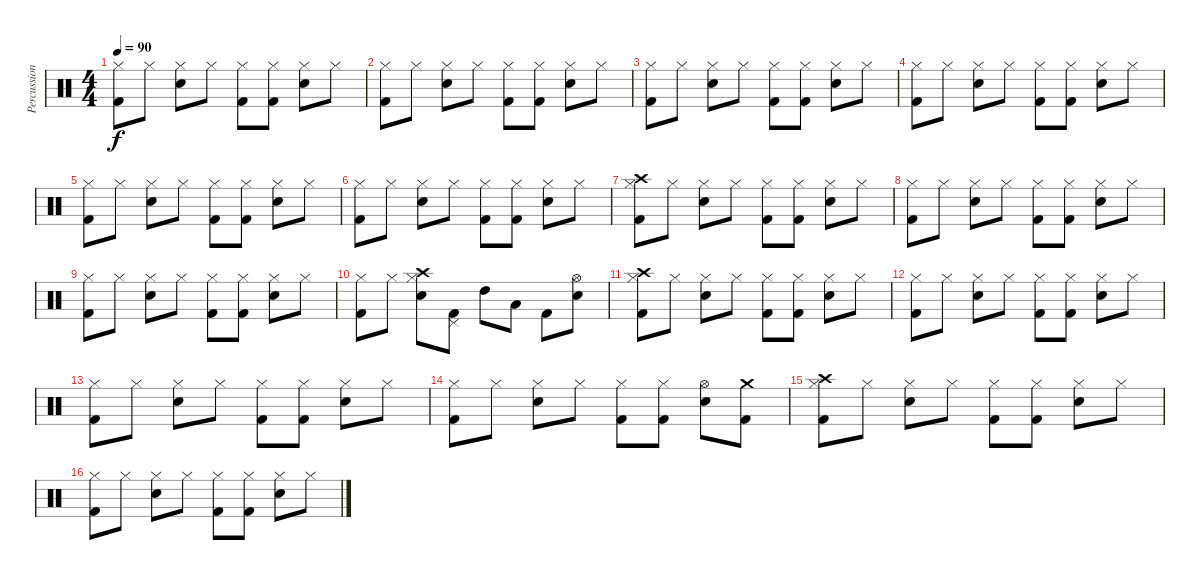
\track ("Percussions" "Percussion") {instrument percussion}
\staff {score}
\articulation defaults
\ts (4 4)
\tempo 90
\clef neutral
\ks c
("Hi-Hat (closed)" "Kick (hit) 2").8{dy f} "Hi-Hat (closed)".8 ("Hi-Hat (closed)" "Snare (hit) 2").8 "Hi-Hat (closed)".8 ("Hi-Hat (closed)" "Kick (hit) 2").8 ("Hi-Hat (closed)" "Kick (hit) 2").8 ("Hi-Hat (closed)" "Snare (hit) 2").8 "Hi-Hat (closed)".8 |
("Hi-Hat (closed)" "Kick (hit) 2").8 "Hi-Hat (closed)".8 ("Hi-Hat (closed)" "Snare (hit) 2").8 "Hi-Hat (closed)".8 ("Hi-Hat (closed)" "Kick (hit) 2").8 ("Hi-Hat (closed)" "Kick (hit) 2").8 ("Hi-Hat (closed)" "Snare (hit) 2").8 "Hi-Hat (closed)".8 |
("Hi-Hat (closed)" "Kick (hit) 2").8 "Hi-Hat (closed)".8 ("Hi-Hat (closed)" "Snare (hit) 2").8 "Hi-Hat (closed)".8 ("Hi-Hat (closed)" "Kick (hit) 2").8 ("Hi-Hat (closed)" "Kick (hit) 2").8 ("Hi-Hat (closed)" "Snare (hit) 2").8 "Hi-Hat (closed)".8 |
("Hi-Hat (closed)" "Kick (hit) 2").8 "Hi-Hat (closed)".8 ("Hi-Hat (closed)" "Snare (hit) 2").8 "Hi-Hat (closed)".8 ("Hi-Hat (closed)" "Kick (hit) 2").8 ("Hi-Hat (closed)" "Kick (hit) 2").8 ("Hi-Hat (closed)" "Snare (hit) 2").8 "Hi-Hat (closed)".8 |
("Hi-Hat (closed)" "Kick (hit) 2").8 "Hi-Hat (closed)".8 ("Hi-Hat (closed)" "Snare (hit) 2").8 "Hi-Hat (closed)".8 ("Hi-Hat (closed)" "Kick (hit) 2").8 ("Hi-Hat (closed)" "Kick (hit) 2").8 ("Hi-Hat (closed)" "Snare (hit) 2").8 "Hi-Hat (closed)".8 |
("Hi-Hat (closed)" "Kick (hit) 2").8 "Hi-Hat (closed)".8 ("Hi-Hat (closed)" "Snare (hit) 2").8 "Hi-Hat (closed)".8 ("Hi-Hat (closed)" "Kick (hit) 2").8 ("Hi-Hat (closed)" "Kick (hit) 2").8 ("Hi-Hat (closed)" "Snare (hit) 2").8 "Hi-Hat (closed)".8 |
("Crash high (hit)" "Hi-Hat (closed)" "Kick (hit) 2").8 "Hi-Hat (closed)".8 ("Hi-Hat (closed)" "Snare (hit) 2").8 "Hi-Hat (closed)".8 ("Hi-Hat (closed)" "Kick (hit) 2").8 ("Hi-Hat (closed)" "Kick (hit) 2").8 ("Hi-Hat (closed)" "Snare (hit) 2").8 "Hi-Hat (closed)".8 |
("Hi-Hat (closed)" "Kick (hit) 2").8 "Hi-Hat (closed)".8 ("Hi-Hat (closed)" "Snare (hit) 2").8 "Hi-Hat (closed)".8 ("Hi-Hat (closed)" "Kick (hit) 2").8 ("Hi-Hat (closed)" "Kick (hit) 2").8 ("Hi-Hat (closed)" "Snare (hit) 2").8 "Hi-Hat (closed)".8 |
("Hi-Hat (closed)" "Kick (hit) 2").8 "Hi-Hat (closed)".8 ("Hi-Hat (closed)" "Snare (hit) 2").8 "Hi-Hat (closed)".8 ("Hi-Hat (closed)" "Kick (hit) 2").8 ("Hi-Hat (closed)" "Kick (hit) 2").8 ("Hi-Hat (closed)" "Snare (hit) 2").8 "Hi-Hat (closed)".8 |
("Hi-Hat (closed)" "Kick (hit) 2").8 "Hi-Hat (closed)".8 ("Crash high (hit)" "Hi-Hat (closed)" "Snare (hit) 2").8 ("Pedal Hi-Hat (hit)" "Kick (hit) 2").8 "High Tom (hit)".8 "Low Tom (hit)".8 "Kick (hit) 2".8 ("Hi-Hat (open)" "Snare (hit) 2").8 |
("Crash high (hit)" "Hi-Hat (closed)" "Kick (hit) 2").8 "Hi-Hat (closed)".8 ("Hi-Hat (closed)" "Snare (hit) 2").8 "Hi-Hat (closed)".8 ("Hi-Hat (closed)" "Kick (hit) 2").8 ("Hi-Hat (closed)" "Kick (hit) 2").8 ("Hi-Hat (closed)" "Snare (hit) 2").8 "Hi-Hat (closed)".8 |
("Hi-Hat (closed)" "Kick (hit) 2").8 "Hi-Hat (closed)".8 ("Hi-Hat (closed)" "Snare (hit) 2").8 "Hi-Hat (closed)".8 ("Hi-Hat (closed)" "Kick (hit) 2").8 ("Hi-Hat (closed)" "Kick (hit) 2").8 ("Hi-Hat (closed)" "Snare (hit) 2").8 "Hi-Hat (closed)".8 |
("Hi-Hat (closed)" "Kick (hit) 2").8 "Hi-Hat (closed)".8 ("Hi-Hat (closed)" "Snare (hit) 2").8 "Hi-Hat (closed)".8 ("Hi-Hat (closed)" "Kick (hit) 2").8 ("Hi-Hat (closed)" "Kick (hit) 2").8 ("Hi-Hat (closed)" "Snare (hit) 2").8 "Hi-Hat (closed)".8 |
("Hi-Hat (closed)" "Kick (hit) 2").8 "Hi-Hat (closed)".8 ("Hi-Hat (closed)" "Snare (hit) 2").8 "Hi-Hat (closed)".8 ("Hi-Hat (closed)" "Kick (hit) 2").8 ("Hi-Hat (closed)" "Kick (hit) 2").8 ("Hi-Hat (open)" "Snare (hit) 2").8 ("Crash medium (hit)" "Kick (hit) 2").8 |
("Crash high (hit)" "Hi-Hat (closed)" "Kick (hit) 2").8 "Hi-Hat (closed)".8 ("Hi-Hat (closed)" "Snare (hit) 2").8 "Hi-Hat (closed)".8 ("Hi-Hat (closed)" "Kick (hit) 2").8 ("Hi-Hat (closed)" "Kick (hit) 2").8 ("Hi-Hat (closed)" "Snare (hit) 2").8 "Hi-Hat (closed)".8 |
("Hi-Hat (closed)" "Kick (hit) 2").8 "Hi-Hat (closed)".8 ("Hi-Hat (closed)" "Snare (hit) 2").8 "Hi-Hat (closed)".8 ("Hi-Hat (closed)" "Kick (hit) 2").8 ("Hi-Hat (closed)" "Kick (hit) 2").8 ("Hi-Hat (closed)" "Snare (hit) 2").8 "Hi-Hat (closed)".8
